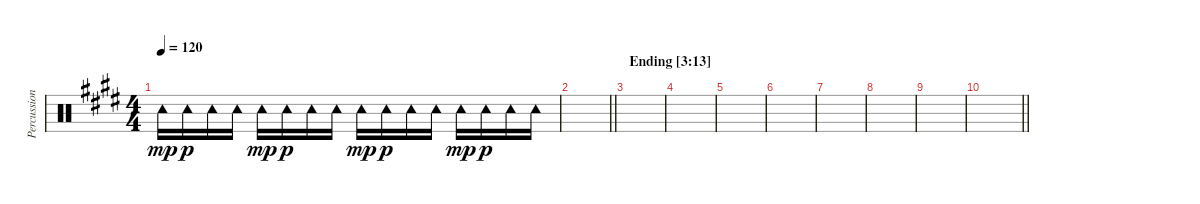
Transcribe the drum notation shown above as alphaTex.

\track ("Percussion" "Percussion") {instrument percussion}
\staff {score}
\articulation defaults
\ts (4 4)
\tempo 120
\clef neutral
\ks c#minor "Tambourine (hit)".16{dy mp} "Tambourine (hit)".16{dy p} "Tambourine (hit)".16 "Tambourine (hit)".16 "Tambourine (hit)".16{dy mp} "Tambourine (hit)".16{dy p} "Tambourine (hit)".16 "Tambourine (hit)".16 "Tambourine (hit)".16{dy mp} "Tambourine (hit)".16{dy p} "Tambourine (hit)".16 "Tambourine (hit)".16 "Tambourine (hit)".16{dy mp} "Tambourine (hit)".16{dy p} "Tambourine (hit)".16 "Tambourine (hit)".16
|
\barLineRight lightlight
|
\section ("" "Ending [3:13]")
|
|
|
|
|
|
|
\barLineRight lightlight
